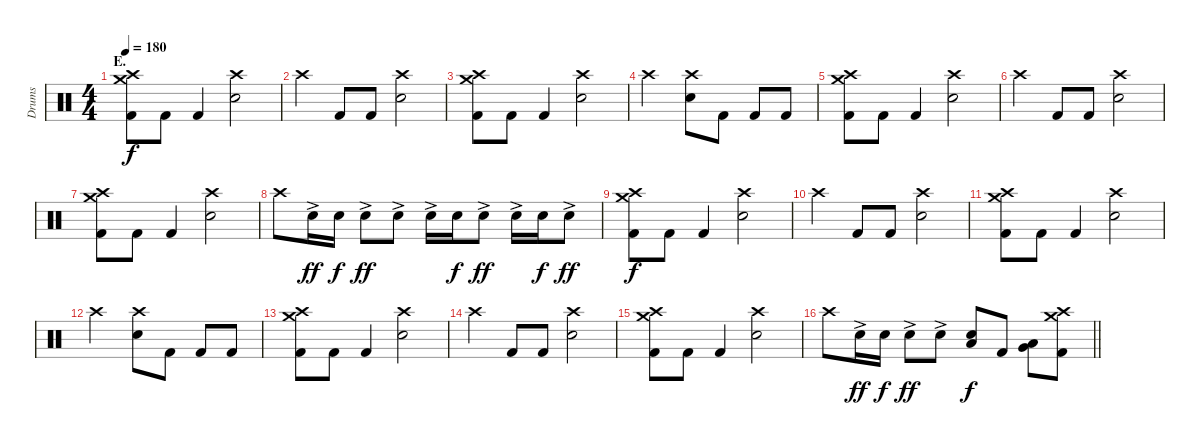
\track ("Drums" "Drums") {instrument percussion}
\staff {score}
\articulation defaults
\ts (4 4)
\section ("" "E.")
\tempo 180
\clef neutral
\ks c
("Crash medium (hit)" "Crash high (hit)" "Kick (hit) 2").8{dy f} "Kick (hit) 2".8 "Kick (hit) 2".4 ("Crash high (hit)" "Electric Snare (hit)").2 |
"Crash high (hit)".4 "Kick (hit) 2".8 "Kick (hit) 2".8 ("Crash high (hit)" "Electric Snare (hit)").2 |
("Crash medium (hit)" "Crash high (hit)" "Kick (hit) 2").8 "Kick (hit) 2".8 "Kick (hit) 2".4 ("Crash high (hit)" "Electric Snare (hit)").2 |
"Crash high (hit)".2 ("Crash high (hit)" "Electric Snare (hit)").8 "Kick (hit) 2".8 "Kick (hit) 2".8 "Kick (hit) 2".8 |
("Crash medium (hit)" "Crash high (hit)" "Kick (hit) 2").8 "Kick (hit) 2".8 "Kick (hit) 2".4 ("Crash high (hit)" "Electric Snare (hit)").2 |
"Crash high (hit)".4 "Kick (hit) 2".8 "Kick (hit) 2".8 ("Crash high (hit)" "Electric Snare (hit)").2 |
("Crash medium (hit)" "Crash high (hit)" "Kick (hit) 2").8 "Kick (hit) 2".8 "Kick (hit) 2".4 ("Crash high (hit)" "Electric Snare (hit)").2 |
"Crash high (hit)".8 "Electric Snare (hit)"{ac}.16{dy ff} "Electric Snare (hit)".16{dy f} "Electric Snare (hit)"{ac}.8{dy ff} "Electric Snare (hit)"{ac}.8 "Electric Snare (hit)"{ac}.16 "Electric Snare (hit)".16{dy f} "Electric Snare (hit)"{ac}.8{dy ff} "Electric Snare (hit)"{ac}.16 "Electric Snare (hit)".16{dy f} "Electric Snare (hit)"{ac}.8{dy ff} |
("Crash medium (hit)" "Crash high (hit)" "Kick (hit) 2").8{dy f} "Kick (hit) 2".8 "Kick (hit) 2".4 ("Crash high (hit)" "Electric Snare (hit)").2 |
"Crash high (hit)".4 "Kick (hit) 2".8 "Kick (hit) 2".8 ("Crash high (hit)" "Electric Snare (hit)").2 |
("Crash medium (hit)" "Crash high (hit)" "Kick (hit) 2").8 "Kick (hit) 2".8 "Kick (hit) 2".4 ("Crash high (hit)" "Electric Snare (hit)").2 |
"Crash high (hit)".2 ("Crash high (hit)" "Electric Snare (hit)").8 "Kick (hit) 2".8 "Kick (hit) 2".8 "Kick (hit) 2".8 |
("Crash medium (hit)" "Crash high (hit)" "Kick (hit) 2").8 "Kick (hit) 2".8 "Kick (hit) 2".4 ("Crash high (hit)" "Electric Snare (hit)").2 |
"Crash high (hit)".4 "Kick (hit) 2".8 "Kick (hit) 2".8 ("Crash high (hit)" "Electric Snare (hit)").2 |
("Crash medium (hit)" "Crash high (hit)" "Kick (hit) 2").8 "Kick (hit) 2".8 "Kick (hit) 2".4 ("Crash high (hit)" "Electric Snare (hit)").2 |
\barLineRight lightlight "Crash high (hit)".8 "Electric Snare (hit)"{ac}.16{dy ff} "Electric Snare (hit)".16{dy f} "Electric Snare (hit)"{ac}.8{dy ff} "Electric Snare (hit)"{ac}.8
("Electric Snare (hit)" "Low Floor Tom (hit)").8{bu 120 dy f} "Kick (hit) 2".8 ("Very Low Tom (hit)" "Low Floor Tom (hit)").8{bu 120} ("Crash medium (hit)" "Crash high (hit)" "Kick (hit) 2").8
